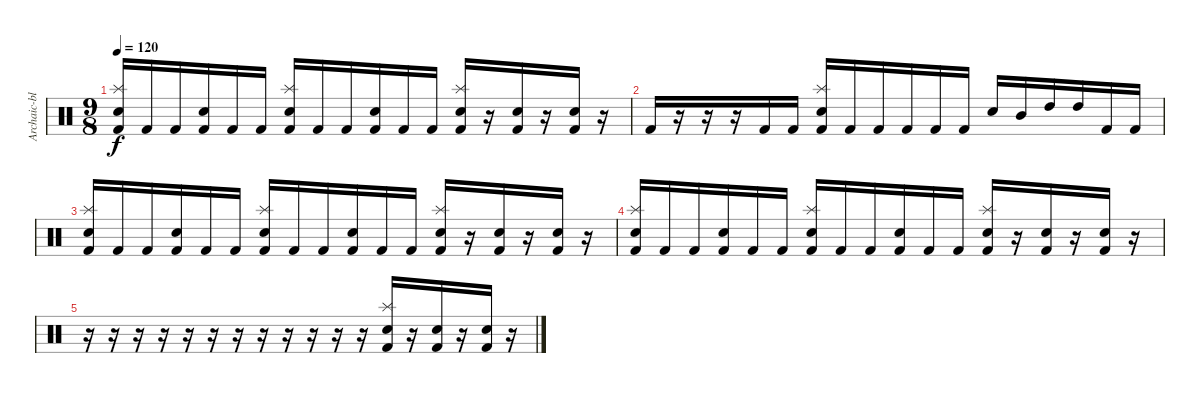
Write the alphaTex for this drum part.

\track ("Archaic-blasting fellow" "Archaic-bl") {instrument percussion}
\staff {score}
\articulation defaults
\ts (9 8)
\tempo 120
\clef neutral
\ks c
("Kick (hit) 2" "Splash (hit)" "Snare (hit) 2").16{dy f} "Kick (hit) 2".16 "Kick (hit) 2".16 ("Kick (hit) 2" "Snare (hit) 2").16 "Kick (hit) 2".16 "Kick (hit) 2".16 ("Kick (hit) 2" "Splash (hit)" "Snare (hit) 2").16 "Kick (hit) 2".16 "Kick (hit) 2".16 ("Kick (hit) 2" "Snare (hit) 2").16 "Kick (hit) 2".16 "Kick (hit) 2".16 ("Kick (hit) 2" "Splash (hit)" "Snare (hit) 2").16 r.16 ("Kick (hit) 2" "Snare (hit) 2").16 r.16 ("Kick (hit) 2" "Snare (hit) 2").16 r.16 |
"Kick (hit) 2".16 r.16 r.16 r.16 "Kick (hit) 2".16 "Kick (hit) 2".16 ("Kick (hit) 2" "Splash (hit)" "Snare (hit) 2").16 "Kick (hit) 2".16 "Kick (hit) 2".16 "Kick (hit) 2".16 "Kick (hit) 2".16 "Kick (hit) 2".16 "Snare (hit) 2".16 "Mid Tom (hit)".16 "High Tom (hit)".16 "High Tom (hit)".16 "Kick (hit) 2".16 "Kick (hit) 2".16 |
("Kick (hit) 2" "Splash (hit)" "Snare (hit) 2").16 "Kick (hit) 2".16 "Kick (hit) 2".16 ("Kick (hit) 2" "Snare (hit) 2").16 "Kick (hit) 2".16 "Kick (hit) 2".16 ("Kick (hit) 2" "Splash (hit)" "Snare (hit) 2").16 "Kick (hit) 2".16 "Kick (hit) 2".16 ("Kick (hit) 2" "Snare (hit) 2").16 "Kick (hit) 2".16 "Kick (hit) 2".16 ("Kick (hit) 2" "Splash (hit)" "Snare (hit) 2").16 r.16 ("Kick (hit) 2" "Snare (hit) 2").16 r.16 ("Kick (hit) 2" "Snare (hit) 2").16 r.16 |
("Kick (hit) 2" "Splash (hit)" "Snare (hit) 2").16 "Kick (hit) 2".16 "Kick (hit) 2".16 ("Kick (hit) 2" "Snare (hit) 2").16 "Kick (hit) 2".16 "Kick (hit) 2".16 ("Kick (hit) 2" "Splash (hit)" "Snare (hit) 2").16 "Kick (hit) 2".16 "Kick (hit) 2".16 ("Kick (hit) 2" "Snare (hit) 2").16 "Kick (hit) 2".16 "Kick (hit) 2".16 ("Kick (hit) 2" "Splash (hit)" "Snare (hit) 2").16 r.16 ("Kick (hit) 2" "Snare (hit) 2").16 r.16 ("Kick (hit) 2" "Snare (hit) 2").16 r.16 |
r.16 r.16 r.16 r.16 r.16 r.16 r.16 r.16 r.16 r.16 r.16 r.16 ("Kick (hit) 2" "Splash (hit)" "Snare (hit) 2").16 r.16 ("Kick (hit) 2" "Snare (hit) 2").16 r.16 ("Kick (hit) 2" "Snare (hit) 2").16 r.16
